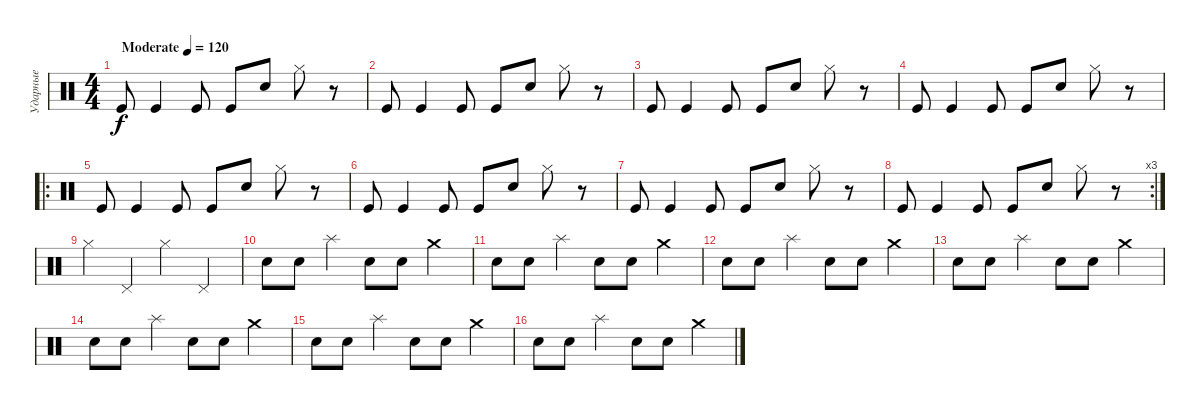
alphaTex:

\track ("Ударные" "Ударные") {instrument percussion}
\staff {score}
\articulation defaults
\ts (4 4)
\tempo (120 "Moderate")
\clef neutral
\ks c "Kick (hit)".8{dy f} "Kick (hit)".4 "Kick (hit)".8 "Kick (hit)".8 "Snare (hit) 2".8 "Hi-Hat (closed)".8
r.8 |
"Kick (hit)".8 "Kick (hit)".4 "Kick (hit)".8 "Kick (hit)".8 "Snare (hit) 2".8 "Hi-Hat (closed)".8 r.8 |
"Kick (hit)".8 "Kick (hit)".4 "Kick (hit)".8 "Kick (hit)".8 "Snare (hit) 2".8 "Hi-Hat (closed)".8 r.8 |
"Kick (hit)".8 "Kick (hit)".4 "Kick (hit)".8 "Kick (hit)".8 "Snare (hit) 2".8 "Hi-Hat (closed)".8 r.8 |
\ro "Kick (hit)".8 "Kick (hit)".4 "Kick (hit)".8 "Kick (hit)".8 "Snare (hit) 2".8 "Hi-Hat (closed)".8
r.8 |
"Kick (hit)".8 "Kick (hit)".4 "Kick (hit)".8 "Kick (hit)".8 "Snare (hit) 2".8 "Hi-Hat (closed)".8 r.8 |
"Kick (hit)".8 "Kick (hit)".4 "Kick (hit)".8 "Kick (hit)".8 "Snare (hit) 2".8 "Hi-Hat (closed)".8 r.8 |
\rc 3 "Kick (hit)".8 "Kick (hit)".4 "Kick (hit)".8 "Kick (hit)".8 "Snare (hit) 2".8 "Hi-Hat (closed)".8
r.8 |
"Hi-Hat (closed)".4 "Pedal Hi-Hat (hit)".4 "Hi-Hat (closed)".4 "Pedal Hi-Hat (hit)".4 |
"Snare (hit) 2".8 "Snare (hit) 2".8 "Splash (hit)".4 "Snare (hit) 2".8 "Snare (hit) 2".8 "Crash medium (hit)".4 |
"Snare (hit) 2".8 "Snare (hit) 2".8 "Splash (hit)".4 "Snare (hit) 2".8 "Snare (hit) 2".8 "Crash medium (hit)".4 |
"Snare (hit) 2".8 "Snare (hit) 2".8 "Splash (hit)".4 "Snare (hit) 2".8 "Snare (hit) 2".8 "Crash medium (hit)".4 |
"Snare (hit) 2".8 "Snare (hit) 2".8 "Splash (hit)".4 "Snare (hit) 2".8 "Snare (hit) 2".8 "Crash medium (hit)".4 |
"Snare (hit) 2".8 "Snare (hit) 2".8 "Splash (hit)".4 "Snare (hit) 2".8 "Snare (hit) 2".8 "Crash medium (hit)".4 |
"Snare (hit) 2".8 "Snare (hit) 2".8 "Splash (hit)".4 "Snare (hit) 2".8 "Snare (hit) 2".8 "Crash medium (hit)".4 |
"Snare (hit) 2".8 "Snare (hit) 2".8 "Splash (hit)".4 "Snare (hit) 2".8 "Snare (hit) 2".8 "Crash medium (hit)".4
